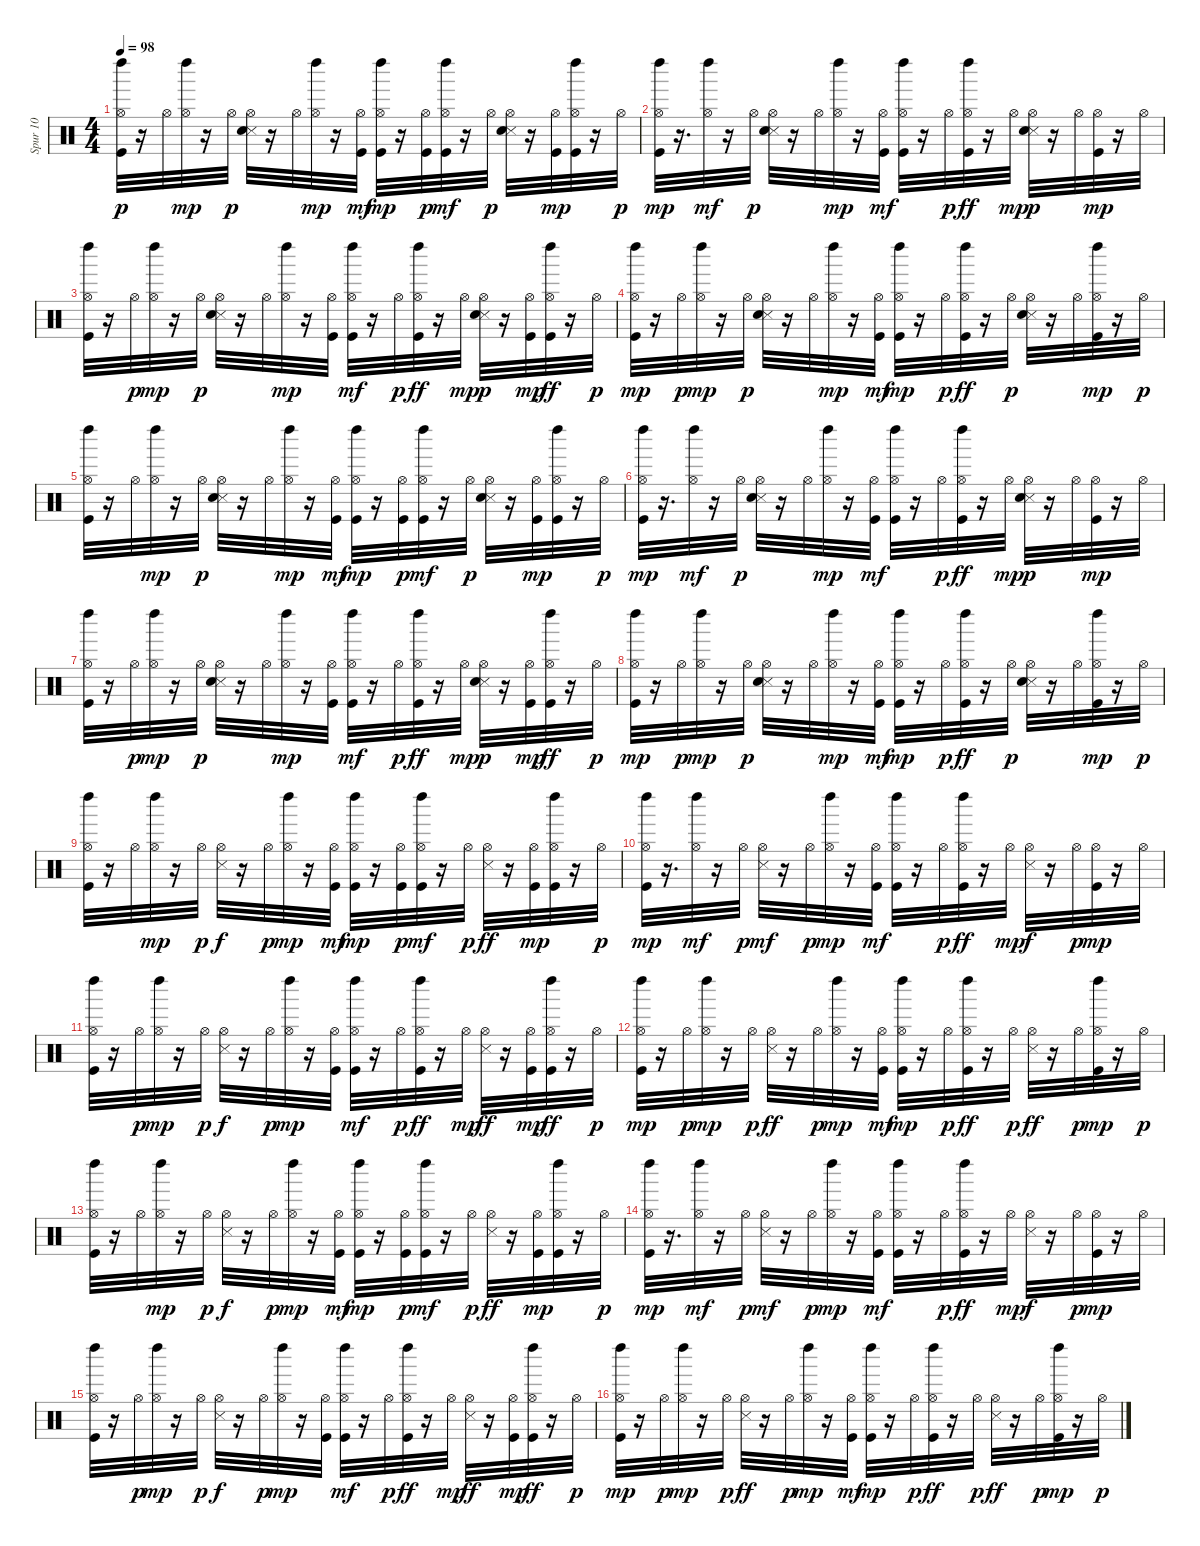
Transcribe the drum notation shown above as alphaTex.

\track ("Spur 10" "Spur 10") {instrument percussion}
\staff {score}
\articulation defaults
\ts (4 4)
\tempo 98
\clef neutral
\ks c
("Hi-Hat (open)" "Kick (hit)" "Left Maraca (hit)").32{dy p} r.16 "Hi-Hat (open)".32 ("Hi-Hat (open)" "Left Maraca (hit)").32{dy mp} r.16 "Hi-Hat (open)".32{dy p} ("Hi-Hat (open)" "Snare (side stick) 3" "Electric Snare (hit)").32 r.16 "Hi-Hat (open)".32 ("Hi-Hat (open)" "Left Maraca (hit)").32{dy mp} r.16 ("Hi-Hat (open)" "Kick (hit)").32{dy mf} ("Hi-Hat (open)" "Kick (hit)" "Left Maraca (hit)").32{dy mp} r.16 ("Hi-Hat (open)" "Kick (hit)").32{dy p} ("Hi-Hat (open)" "Kick (hit)" "Left Maraca (hit)").32{dy mf} r.16 "Hi-Hat (open)".32{dy p} ("Hi-Hat (open)" "Snare (side stick) 3" "Electric Snare (hit)").32 r.16 ("Hi-Hat (open)" "Kick (hit)").32{dy mp} ("Hi-Hat (open)" "Kick (hit)" "Left Maraca (hit)").32 r.16 "Hi-Hat (open)".32{dy p} |
("Hi-Hat (open)" "Kick (hit)" "Left Maraca (hit)").32{dy mp} r.16{d} ("Hi-Hat (open)" "Left Maraca (hit)").32{dy mf} r.16 "Hi-Hat (open)".32{dy p} ("Hi-Hat (open)" "Snare (side stick) 3" "Electric Snare (hit)").32 r.16 "Hi-Hat (open)".32 ("Hi-Hat (open)" "Left Maraca (hit)").32{dy mp} r.16 ("Hi-Hat (open)" "Kick (hit)").32{dy mf} ("Hi-Hat (open)" "Kick (hit)" "Left Maraca (hit)").32 r.16 "Hi-Hat (open)".32{dy p} ("Hi-Hat (open)" "Kick (hit)" "Left Maraca (hit)").32{dy ff} r.16 "Hi-Hat (open)".32{dy mp} ("Hi-Hat (open)" "Snare (side stick) 3" "Electric Snare (hit)").32{dy p} r.16 "Hi-Hat (open)".32 ("Hi-Hat (open)" "Kick (hit)").32{dy mp} r.16 "Hi-Hat (open)".32 |
("Hi-Hat (open)" "Kick (hit)" "Left Maraca (hit)").32 r.16 "Hi-Hat (open)".32{dy p} ("Hi-Hat (open)" "Left Maraca (hit)").32{dy mp} r.16 "Hi-Hat (open)".32{dy p} ("Hi-Hat (open)" "Snare (side stick) 3" "Electric Snare (hit)").32 r.16 "Hi-Hat (open)".32 ("Hi-Hat (open)" "Left Maraca (hit)").32{dy mp} r.16 ("Hi-Hat (open)" "Kick (hit)").32 ("Hi-Hat (open)" "Kick (hit)" "Left Maraca (hit)").32{dy mf} r.16 "Hi-Hat (open)".32{dy p} ("Hi-Hat (open)" "Kick (hit)" "Left Maraca (hit)").32{dy ff} r.16 "Hi-Hat (open)".32{dy mp} ("Hi-Hat (open)" "Snare (side stick) 3" "Electric Snare (hit)").32{dy p} r.16 ("Hi-Hat (open)" "Kick (hit)").32{dy mp} ("Hi-Hat (open)" "Kick (hit)" "Left Maraca (hit)").32{dy ff} r.16 "Hi-Hat (open)".32{dy p} |
("Hi-Hat (open)" "Kick (hit)" "Left Maraca (hit)").32{dy mp} r.16 "Hi-Hat (open)".32{dy p} ("Hi-Hat (open)" "Left Maraca (hit)").32{dy mp} r.16 "Hi-Hat (open)".32{dy p} ("Hi-Hat (open)" "Snare (side stick) 3" "Electric Snare (hit)").32 r.16 "Hi-Hat (open)".32 ("Hi-Hat (open)" "Left Maraca (hit)").32{dy mp} r.16 ("Hi-Hat (open)" "Kick (hit)").32{dy mf} ("Hi-Hat (open)" "Kick (hit)" "Left Maraca (hit)").32{dy mp} r.16 "Hi-Hat (open)".32{dy p} ("Hi-Hat (open)" "Kick (hit)" "Left Maraca (hit)").32{dy ff} r.16 "Hi-Hat (open)".32{dy p} ("Hi-Hat (open)" "Snare (side stick) 3" "Electric Snare (hit)").32 r.16 "Hi-Hat (open)".32 ("Hi-Hat (open)" "Kick (hit)" "Left Maraca (hit)").32{dy mp} r.16 "Hi-Hat (open)".32{dy p} |
("Hi-Hat (open)" "Kick (hit)" "Left Maraca (hit)").32 r.16 "Hi-Hat (open)".32 ("Hi-Hat (open)" "Left Maraca (hit)").32{dy mp} r.16 "Hi-Hat (open)".32{dy p} ("Hi-Hat (open)" "Snare (side stick) 3" "Electric Snare (hit)").32 r.16 "Hi-Hat (open)".32 ("Hi-Hat (open)" "Left Maraca (hit)").32{dy mp} r.16 ("Hi-Hat (open)" "Kick (hit)").32{dy mf} ("Hi-Hat (open)" "Kick (hit)" "Left Maraca (hit)").32{dy mp} r.16 ("Hi-Hat (open)" "Kick (hit)").32{dy p} ("Hi-Hat (open)" "Kick (hit)" "Left Maraca (hit)").32{dy mf} r.16 "Hi-Hat (open)".32{dy p} ("Hi-Hat (open)" "Snare (side stick) 3" "Electric Snare (hit)").32 r.16 ("Hi-Hat (open)" "Kick (hit)").32{dy mp} ("Hi-Hat (open)" "Kick (hit)" "Left Maraca (hit)").32 r.16 "Hi-Hat (open)".32{dy p} |
("Hi-Hat (open)" "Kick (hit)" "Left Maraca (hit)").32{dy mp} r.16{d} ("Hi-Hat (open)" "Left Maraca (hit)").32{dy mf} r.16 "Hi-Hat (open)".32{dy p} ("Hi-Hat (open)" "Snare (side stick) 3" "Electric Snare (hit)").32 r.16 "Hi-Hat (open)".32 ("Hi-Hat (open)" "Left Maraca (hit)").32{dy mp} r.16 ("Hi-Hat (open)" "Kick (hit)").32{dy mf} ("Hi-Hat (open)" "Kick (hit)" "Left Maraca (hit)").32 r.16 "Hi-Hat (open)".32{dy p} ("Hi-Hat (open)" "Kick (hit)" "Left Maraca (hit)").32{dy ff} r.16 "Hi-Hat (open)".32{dy mp} ("Hi-Hat (open)" "Snare (side stick) 3" "Electric Snare (hit)").32{dy p} r.16 "Hi-Hat (open)".32 ("Hi-Hat (open)" "Kick (hit)").32{dy mp} r.16 "Hi-Hat (open)".32 |
("Hi-Hat (open)" "Kick (hit)" "Left Maraca (hit)").32 r.16 "Hi-Hat (open)".32{dy p} ("Hi-Hat (open)" "Left Maraca (hit)").32{dy mp} r.16 "Hi-Hat (open)".32{dy p} ("Hi-Hat (open)" "Snare (side stick) 3" "Electric Snare (hit)").32 r.16 "Hi-Hat (open)".32 ("Hi-Hat (open)" "Left Maraca (hit)").32{dy mp} r.16 ("Hi-Hat (open)" "Kick (hit)").32 ("Hi-Hat (open)" "Kick (hit)" "Left Maraca (hit)").32{dy mf} r.16 "Hi-Hat (open)".32{dy p} ("Hi-Hat (open)" "Kick (hit)" "Left Maraca (hit)").32{dy ff} r.16 "Hi-Hat (open)".32{dy mp} ("Hi-Hat (open)" "Snare (side stick) 3" "Electric Snare (hit)").32{dy p} r.16 ("Hi-Hat (open)" "Kick (hit)").32{dy mp} ("Hi-Hat (open)" "Kick (hit)" "Left Maraca (hit)").32{dy ff} r.16 "Hi-Hat (open)".32{dy p} |
("Hi-Hat (open)" "Kick (hit)" "Left Maraca (hit)").32{dy mp} r.16 "Hi-Hat (open)".32{dy p} ("Hi-Hat (open)" "Left Maraca (hit)").32{dy mp} r.16 "Hi-Hat (open)".32{dy p} ("Hi-Hat (open)" "Snare (side stick) 3" "Electric Snare (hit)").32 r.16 "Hi-Hat (open)".32 ("Hi-Hat (open)" "Left Maraca (hit)").32{dy mp} r.16 ("Hi-Hat (open)" "Kick (hit)").32{dy mf} ("Hi-Hat (open)" "Kick (hit)" "Left Maraca (hit)").32{dy mp} r.16 "Hi-Hat (open)".32{dy p} ("Hi-Hat (open)" "Kick (hit)" "Left Maraca (hit)").32{dy ff} r.16 "Hi-Hat (open)".32{dy p} ("Hi-Hat (open)" "Snare (side stick) 3" "Electric Snare (hit)").32 r.16 "Hi-Hat (open)".32 ("Hi-Hat (open)" "Kick (hit)" "Left Maraca (hit)").32{dy mp} r.16 "Hi-Hat (open)".32{dy p} |
("Hi-Hat (open)" "Kick (hit)" "Left Maraca (hit)").32 r.16 "Hi-Hat (open)".32 ("Hi-Hat (open)" "Left Maraca (hit)").32{dy mp} r.16 "Hi-Hat (open)".32{dy p} ("Hi-Hat (open)" "Snare (side stick) 3").32{dy f} r.16 "Hi-Hat (open)".32{dy p} ("Hi-Hat (open)" "Left Maraca (hit)").32{dy mp} r.16 ("Hi-Hat (open)" "Kick (hit)").32{dy mf} ("Hi-Hat (open)" "Kick (hit)" "Left Maraca (hit)").32{dy mp} r.16 ("Hi-Hat (open)" "Kick (hit)").32{dy p} ("Hi-Hat (open)" "Kick (hit)" "Left Maraca (hit)").32{dy mf} r.16 "Hi-Hat (open)".32{dy p} ("Hi-Hat (open)" "Snare (side stick) 3").32{dy ff} r.16 ("Hi-Hat (open)" "Kick (hit)").32{dy mp} ("Hi-Hat (open)" "Kick (hit)" "Left Maraca (hit)").32 r.16 "Hi-Hat (open)".32{dy p} |
("Hi-Hat (open)" "Kick (hit)" "Left Maraca (hit)").32{dy mp} r.16{d} ("Hi-Hat (open)" "Left Maraca (hit)").32{dy mf} r.16 "Hi-Hat (open)".32{dy p} ("Hi-Hat (open)" "Snare (side stick) 3").32{dy mf} r.16 "Hi-Hat (open)".32{dy p} ("Hi-Hat (open)" "Left Maraca (hit)").32{dy mp} r.16 ("Hi-Hat (open)" "Kick (hit)").32{dy mf} ("Hi-Hat (open)" "Kick (hit)" "Left Maraca (hit)").32 r.16 "Hi-Hat (open)".32{dy p} ("Hi-Hat (open)" "Kick (hit)" "Left Maraca (hit)").32{dy ff} r.16 "Hi-Hat (open)".32{dy mp} ("Hi-Hat (open)" "Snare (side stick) 3").32{dy f} r.16 "Hi-Hat (open)".32{dy p} ("Hi-Hat (open)" "Kick (hit)").32{dy mp} r.16 "Hi-Hat (open)".32 |
("Hi-Hat (open)" "Kick (hit)" "Left Maraca (hit)").32 r.16 "Hi-Hat (open)".32{dy p} ("Hi-Hat (open)" "Left Maraca (hit)").32{dy mp} r.16 "Hi-Hat (open)".32{dy p} ("Hi-Hat (open)" "Snare (side stick) 3").32{dy f} r.16 "Hi-Hat (open)".32{dy p} ("Hi-Hat (open)" "Left Maraca (hit)").32{dy mp} r.16 ("Hi-Hat (open)" "Kick (hit)").32 ("Hi-Hat (open)" "Kick (hit)" "Left Maraca (hit)").32{dy mf} r.16 "Hi-Hat (open)".32{dy p} ("Hi-Hat (open)" "Kick (hit)" "Left Maraca (hit)").32{dy ff} r.16 "Hi-Hat (open)".32{dy mp} ("Hi-Hat (open)" "Snare (side stick) 3").32{dy ff} r.16 ("Hi-Hat (open)" "Kick (hit)").32{dy mp} ("Hi-Hat (open)" "Kick (hit)" "Left Maraca (hit)").32{dy ff} r.16 "Hi-Hat (open)".32{dy p} |
("Hi-Hat (open)" "Kick (hit)" "Left Maraca (hit)").32{dy mp} r.16 "Hi-Hat (open)".32{dy p} ("Hi-Hat (open)" "Left Maraca (hit)").32{dy mp} r.16 "Hi-Hat (open)".32{dy p} ("Hi-Hat (open)" "Snare (side stick) 3").32{dy ff} r.16 "Hi-Hat (open)".32{dy p} ("Hi-Hat (open)" "Left Maraca (hit)").32{dy mp} r.16 ("Hi-Hat (open)" "Kick (hit)").32{dy mf} ("Hi-Hat (open)" "Kick (hit)" "Left Maraca (hit)").32{dy mp} r.16 "Hi-Hat (open)".32{dy p} ("Hi-Hat (open)" "Kick (hit)" "Left Maraca (hit)").32{dy ff} r.16 "Hi-Hat (open)".32{dy p} ("Hi-Hat (open)" "Snare (side stick) 3").32{dy ff} r.16 "Hi-Hat (open)".32{dy p} ("Hi-Hat (open)" "Kick (hit)" "Left Maraca (hit)").32{dy mp} r.16 "Hi-Hat (open)".32{dy p} |
("Hi-Hat (open)" "Kick (hit)" "Left Maraca (hit)").32 r.16 "Hi-Hat (open)".32 ("Hi-Hat (open)" "Left Maraca (hit)").32{dy mp} r.16 "Hi-Hat (open)".32{dy p} ("Hi-Hat (open)" "Snare (side stick) 3").32{dy f} r.16 "Hi-Hat (open)".32{dy p} ("Hi-Hat (open)" "Left Maraca (hit)").32{dy mp} r.16 ("Hi-Hat (open)" "Kick (hit)").32{dy mf} ("Hi-Hat (open)" "Kick (hit)" "Left Maraca (hit)").32{dy mp} r.16 ("Hi-Hat (open)" "Kick (hit)").32{dy p} ("Hi-Hat (open)" "Kick (hit)" "Left Maraca (hit)").32{dy mf} r.16 "Hi-Hat (open)".32{dy p} ("Hi-Hat (open)" "Snare (side stick) 3").32{dy ff} r.16 ("Hi-Hat (open)" "Kick (hit)").32{dy mp} ("Hi-Hat (open)" "Kick (hit)" "Left Maraca (hit)").32 r.16 "Hi-Hat (open)".32{dy p} |
("Hi-Hat (open)" "Kick (hit)" "Left Maraca (hit)").32{dy mp} r.16{d} ("Hi-Hat (open)" "Left Maraca (hit)").32{dy mf} r.16 "Hi-Hat (open)".32{dy p} ("Hi-Hat (open)" "Snare (side stick) 3").32{dy mf} r.16 "Hi-Hat (open)".32{dy p} ("Hi-Hat (open)" "Left Maraca (hit)").32{dy mp} r.16 ("Hi-Hat (open)" "Kick (hit)").32{dy mf} ("Hi-Hat (open)" "Kick (hit)" "Left Maraca (hit)").32 r.16 "Hi-Hat (open)".32{dy p} ("Hi-Hat (open)" "Kick (hit)" "Left Maraca (hit)").32{dy ff} r.16 "Hi-Hat (open)".32{dy mp} ("Hi-Hat (open)" "Snare (side stick) 3").32{dy f} r.16 "Hi-Hat (open)".32{dy p} ("Hi-Hat (open)" "Kick (hit)").32{dy mp} r.16 "Hi-Hat (open)".32 |
("Hi-Hat (open)" "Kick (hit)" "Left Maraca (hit)").32 r.16 "Hi-Hat (open)".32{dy p} ("Hi-Hat (open)" "Left Maraca (hit)").32{dy mp} r.16 "Hi-Hat (open)".32{dy p} ("Hi-Hat (open)" "Snare (side stick) 3").32{dy f} r.16 "Hi-Hat (open)".32{dy p} ("Hi-Hat (open)" "Left Maraca (hit)").32{dy mp} r.16 ("Hi-Hat (open)" "Kick (hit)").32 ("Hi-Hat (open)" "Kick (hit)" "Left Maraca (hit)").32{dy mf} r.16 "Hi-Hat (open)".32{dy p} ("Hi-Hat (open)" "Kick (hit)" "Left Maraca (hit)").32{dy ff} r.16 "Hi-Hat (open)".32{dy mp} ("Hi-Hat (open)" "Snare (side stick) 3").32{dy ff} r.16 ("Hi-Hat (open)" "Kick (hit)").32{dy mp} ("Hi-Hat (open)" "Kick (hit)" "Left Maraca (hit)").32{dy ff} r.16 "Hi-Hat (open)".32{dy p} |
("Hi-Hat (open)" "Kick (hit)" "Left Maraca (hit)").32{dy mp} r.16 "Hi-Hat (open)".32{dy p} ("Hi-Hat (open)" "Left Maraca (hit)").32{dy mp} r.16 "Hi-Hat (open)".32{dy p} ("Hi-Hat (open)" "Snare (side stick) 3").32{dy ff} r.16 "Hi-Hat (open)".32{dy p} ("Hi-Hat (open)" "Left Maraca (hit)").32{dy mp} r.16 ("Hi-Hat (open)" "Kick (hit)").32{dy mf} ("Hi-Hat (open)" "Kick (hit)" "Left Maraca (hit)").32{dy mp} r.16 "Hi-Hat (open)".32{dy p} ("Hi-Hat (open)" "Kick (hit)" "Left Maraca (hit)").32{dy ff} r.16 "Hi-Hat (open)".32{dy p} ("Hi-Hat (open)" "Snare (side stick) 3").32{dy ff} r.16 "Hi-Hat (open)".32{dy p} ("Hi-Hat (open)" "Kick (hit)" "Left Maraca (hit)").32{dy mp} r.16 "Hi-Hat (open)".32{dy p}
